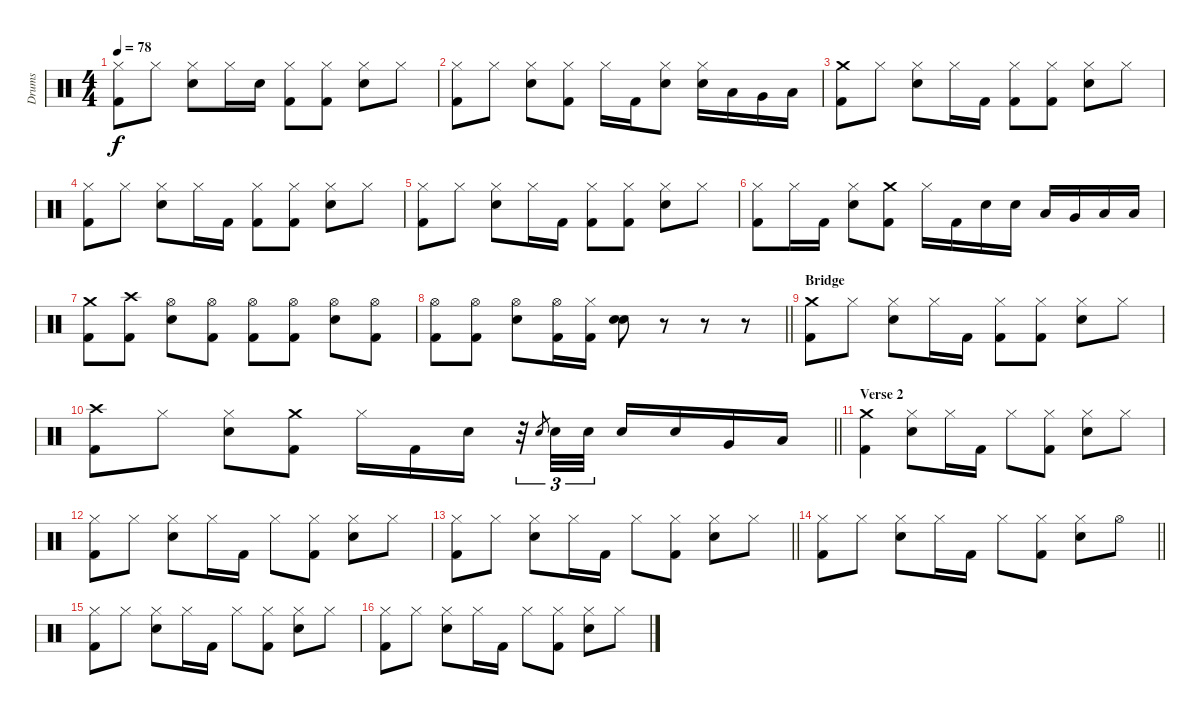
\track ("Drums" "Drums") {instrument percussion}
\staff {score}
\articulation defaults
\ts (4 4)
\tempo 78
\clef neutral
\ks c
("Hi-Hat (closed)" "Kick (hit) 2").8{dy f} "Hi-Hat (closed)".8 ("Hi-Hat (closed)" "Electric Snare (hit)").8 "Hi-Hat (closed)".16 "Electric Snare (hit)".16 ("Hi-Hat (closed)" "Kick (hit) 2").8 ("Hi-Hat (closed)" "Kick (hit) 2").8 ("Hi-Hat (closed)" "Electric Snare (hit)").8 "Hi-Hat (closed)".8 |
("Hi-Hat (closed)" "Kick (hit) 2").8 "Hi-Hat (closed)".8 ("Hi-Hat (closed)" "Electric Snare (hit)").8 ("Hi-Hat (closed)" "Kick (hit) 2").8 "Hi-Hat (closed)".16 "Kick (hit) 2".16 ("Hi-Hat (closed)" "Electric Snare (hit)").8 ("Hi-Hat (closed)" "Electric Snare (hit)").16 "Low Tom (hit)".16 "Very Low Tom (hit)".16 "Low Floor Tom (hit)".16 |
("Crash medium (hit)" "Kick (hit) 2").8 "Hi-Hat (closed)".8 ("Hi-Hat (closed)" "Electric Snare (hit)").8 "Hi-Hat (closed)".16 "Kick (hit) 2".16 ("Hi-Hat (closed)" "Kick (hit) 2").8 ("Hi-Hat (closed)" "Kick (hit) 2").8 ("Hi-Hat (closed)" "Electric Snare (hit)").8 "Hi-Hat (closed)".8 |
("Hi-Hat (closed)" "Kick (hit) 2").8 "Hi-Hat (closed)".8 ("Hi-Hat (closed)" "Electric Snare (hit)").8 "Hi-Hat (closed)".16 "Kick (hit) 2".16 ("Hi-Hat (closed)" "Kick (hit) 2").8 ("Hi-Hat (closed)" "Kick (hit) 2").8 ("Hi-Hat (closed)" "Electric Snare (hit)").8 "Hi-Hat (closed)".8 |
("Hi-Hat (closed)" "Kick (hit) 2").8 "Hi-Hat (closed)".8 ("Hi-Hat (closed)" "Electric Snare (hit)").8 "Hi-Hat (closed)".16 "Kick (hit) 2".16 ("Hi-Hat (closed)" "Kick (hit) 2").8 ("Hi-Hat (closed)" "Kick (hit) 2").8 ("Hi-Hat (closed)" "Electric Snare (hit)").8 "Hi-Hat (closed)".8 |
("Hi-Hat (closed)" "Kick (hit) 2").8 "Hi-Hat (closed)".16 "Kick (hit) 2".16 ("Hi-Hat (closed)" "Electric Snare (hit)").8 ("Crash medium (hit)" "Kick (hit) 2").8 "Hi-Hat (closed)".16 "Kick (hit) 2".16 "Electric Snare (hit)".16 "Electric Snare (hit)".16 "Low Tom (hit)".16 "Very Low Tom (hit)".16 "Low Tom (hit)".16 "Low Floor Tom (hit)".16 |
("Crash medium (hit)" "Kick (hit) 2").8 ("Crash high (hit)" "Kick (hit) 2").8 ("Hi-Hat (open)" "Electric Snare (hit)").8 ("Hi-Hat (open)" "Kick (hit) 2").8 ("Hi-Hat (open)" "Kick (hit) 2").8 ("Hi-Hat (open)" "Kick (hit) 2").8 ("Hi-Hat (open)" "Electric Snare (hit)").8 ("Hi-Hat (open)" "Kick (hit) 2").8 |
\barLineRight lightlight
("Hi-Hat (open)" "Kick (hit) 2").8 ("Hi-Hat (open)" "Kick (hit) 2").8 ("Hi-Hat (open)" "Electric Snare (hit)").8 ("Hi-Hat (open)" "Kick (hit) 2").16 ("Hi-Hat (closed)" "Kick (hit) 2").16 ("Electric Snare (hit)" "Electric Snare (hit)").8 r.8 r.8 r.8 |
\section ("" "Bridge")
("Crash medium (hit)" "Kick (hit) 2").8 "Hi-Hat (closed)".8 ("Hi-Hat (closed)" "Electric Snare (hit)").8 "Hi-Hat (closed)".16 "Kick (hit) 2".16 ("Hi-Hat (closed)" "Kick (hit) 2").8 ("Hi-Hat (closed)" "Kick (hit) 2").8 ("Hi-Hat (closed)" "Electric Snare (hit)").8 "Hi-Hat (closed)".8 |
\barLineRight lightlight
("Crash high (hit)" "Kick (hit) 2").8 "Hi-Hat (closed)".8 ("Hi-Hat (closed)" "Electric Snare (hit)").8 ("Crash medium (hit)" "Kick (hit) 2").8 "Hi-Hat (closed)".16 "Kick (hit) 2".16 "Electric Snare (hit)".16 r.32{tu (3 2)} "Electric Snare (hit)".8{gr} "Electric Snare (hit)".32{tu (3 2)} "Electric Snare (hit)".32{tu (3 2)} "Electric Snare (hit)".16 "Electric Snare (hit)".16 "Very Low Tom (hit)".16 "Low Floor Tom (hit)".16 |
\section ("" "Verse 2")
("Crash medium (hit)" "Kick (hit) 2").4 ("Hi-Hat (closed)" "Electric Snare (hit)").8 "Hi-Hat (closed)".16 "Kick (hit) 2".16 "Hi-Hat (closed)".8 ("Hi-Hat (closed)" "Kick (hit) 2").8 ("Hi-Hat (closed)" "Electric Snare (hit)").8 "Hi-Hat (closed)".8 |
("Hi-Hat (closed)" "Kick (hit) 2").8 "Hi-Hat (closed)".8 ("Hi-Hat (closed)" "Electric Snare (hit)").8 "Hi-Hat (closed)".16 "Kick (hit) 2".16 "Hi-Hat (closed)".8 ("Hi-Hat (closed)" "Kick (hit) 2").8 ("Hi-Hat (closed)" "Electric Snare (hit)").8 "Hi-Hat (closed)".8 |
\barLineRight lightlight
("Hi-Hat (closed)" "Kick (hit) 2").8 "Hi-Hat (closed)".8 ("Hi-Hat (closed)" "Electric Snare (hit)").8 "Hi-Hat (closed)".16 "Kick (hit) 2".16 "Hi-Hat (closed)".8 ("Hi-Hat (closed)" "Kick (hit) 2").8 ("Hi-Hat (closed)" "Electric Snare (hit)").8 "Hi-Hat (closed)".8 |
\barLineRight lightlight
("Hi-Hat (closed)" "Kick (hit) 2").8 "Hi-Hat (closed)".8 ("Hi-Hat (closed)" "Electric Snare (hit)").8 "Hi-Hat (closed)".16 "Kick (hit) 2".16 "Hi-Hat (closed)".8 ("Hi-Hat (closed)" "Kick (hit) 2").8 ("Hi-Hat (closed)" "Electric Snare (hit)").8 "Hi-Hat (open)".8 |
("Hi-Hat (closed)" "Kick (hit) 2").8 "Hi-Hat (closed)".8 ("Hi-Hat (closed)" "Electric Snare (hit)").8 "Hi-Hat (closed)".16 "Kick (hit) 2".16 "Hi-Hat (closed)".8 ("Hi-Hat (closed)" "Kick (hit) 2").8 ("Hi-Hat (closed)" "Electric Snare (hit)").8 "Hi-Hat (closed)".8 |
("Hi-Hat (closed)" "Kick (hit) 2").8 "Hi-Hat (closed)".8 ("Hi-Hat (closed)" "Electric Snare (hit)").8 "Hi-Hat (closed)".16 "Kick (hit) 2".16 "Hi-Hat (closed)".8 ("Hi-Hat (closed)" "Kick (hit) 2").8 ("Hi-Hat (closed)" "Electric Snare (hit)").8 "Hi-Hat (closed)".8
